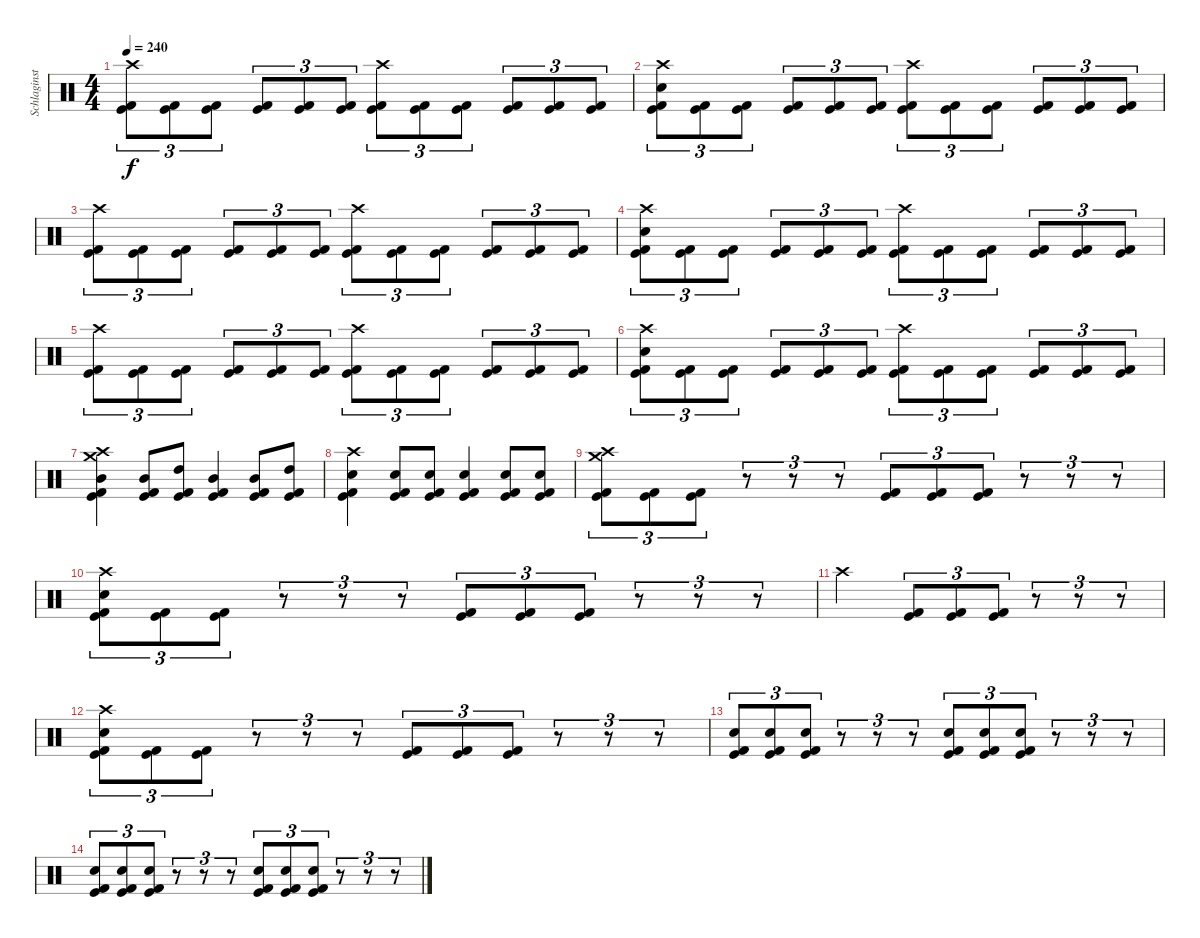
\track ("Schlaginstrumente - Auswahl" "Schlaginst") {instrument percussion}
\staff {score}
\articulation defaults
\ts (4 4)
\tempo 240
\clef neutral
\ks c
("Crash high (hit)" "Kick (hit)" "Kick (hit) 2").8{tu (3 2) dy f} ("Kick (hit)" "Kick (hit) 2").8{tu (3 2)} ("Kick (hit)" "Kick (hit) 2").8{tu (3 2)} ("Kick (hit)" "Kick (hit) 2").8{tu (3 2)} ("Kick (hit)" "Kick (hit) 2").8{tu (3 2)} ("Kick (hit)" "Kick (hit) 2").8{tu (3 2)} ("Crash high (hit)" "Kick (hit)" "Kick (hit) 2").8{tu (3 2)} ("Kick (hit)" "Kick (hit) 2").8{tu (3 2)} ("Kick (hit)" "Kick (hit) 2").8{tu (3 2)} ("Kick (hit)" "Kick (hit) 2").8{tu (3 2)} ("Kick (hit)" "Kick (hit) 2").8{tu (3 2)} ("Kick (hit)" "Kick (hit) 2").8{tu (3 2)} |
("Crash high (hit)" "Electric Snare (hit)" "Kick (hit)" "Kick (hit) 2").8{tu (3 2)} ("Kick (hit)" "Kick (hit) 2").8{tu (3 2)} ("Kick (hit)" "Kick (hit) 2").8{tu (3 2)} ("Kick (hit)" "Kick (hit) 2").8{tu (3 2)} ("Kick (hit)" "Kick (hit) 2").8{tu (3 2)} ("Kick (hit)" "Kick (hit) 2").8{tu (3 2)} ("Crash high (hit)" "Kick (hit)" "Kick (hit) 2").8{tu (3 2)} ("Kick (hit)" "Kick (hit) 2").8{tu (3 2)} ("Kick (hit)" "Kick (hit) 2").8{tu (3 2)} ("Kick (hit)" "Kick (hit) 2").8{tu (3 2)} ("Kick (hit)" "Kick (hit) 2").8{tu (3 2)} ("Kick (hit)" "Kick (hit) 2").8{tu (3 2)} |
("Crash high (hit)" "Kick (hit)" "Kick (hit) 2").8{tu (3 2)} ("Kick (hit)" "Kick (hit) 2").8{tu (3 2)} ("Kick (hit)" "Kick (hit) 2").8{tu (3 2)} ("Kick (hit)" "Kick (hit) 2").8{tu (3 2)} ("Kick (hit)" "Kick (hit) 2").8{tu (3 2)} ("Kick (hit)" "Kick (hit) 2").8{tu (3 2)} ("Crash high (hit)" "Kick (hit)" "Kick (hit) 2").8{tu (3 2)} ("Kick (hit)" "Kick (hit) 2").8{tu (3 2)} ("Kick (hit)" "Kick (hit) 2").8{tu (3 2)} ("Kick (hit)" "Kick (hit) 2").8{tu (3 2)} ("Kick (hit)" "Kick (hit) 2").8{tu (3 2)} ("Kick (hit)" "Kick (hit) 2").8{tu (3 2)} |
("Crash high (hit)" "Electric Snare (hit)" "Kick (hit)" "Kick (hit) 2").8{tu (3 2)} ("Kick (hit)" "Kick (hit) 2").8{tu (3 2)} ("Kick (hit)" "Kick (hit) 2").8{tu (3 2)} ("Kick (hit)" "Kick (hit) 2").8{tu (3 2)} ("Kick (hit)" "Kick (hit) 2").8{tu (3 2)} ("Kick (hit)" "Kick (hit) 2").8{tu (3 2)} ("Crash high (hit)" "Kick (hit)" "Kick (hit) 2").8{tu (3 2)} ("Kick (hit)" "Kick (hit) 2").8{tu (3 2)} ("Kick (hit)" "Kick (hit) 2").8{tu (3 2)} ("Kick (hit)" "Kick (hit) 2").8{tu (3 2)} ("Kick (hit)" "Kick (hit) 2").8{tu (3 2)} ("Kick (hit)" "Kick (hit) 2").8{tu (3 2)} |
("Crash high (hit)" "Kick (hit)" "Kick (hit) 2").8{tu (3 2)} ("Kick (hit)" "Kick (hit) 2").8{tu (3 2)} ("Kick (hit)" "Kick (hit) 2").8{tu (3 2)} ("Kick (hit)" "Kick (hit) 2").8{tu (3 2)} ("Kick (hit)" "Kick (hit) 2").8{tu (3 2)} ("Kick (hit)" "Kick (hit) 2").8{tu (3 2)} ("Crash high (hit)" "Kick (hit)" "Kick (hit) 2").8{tu (3 2)} ("Kick (hit)" "Kick (hit) 2").8{tu (3 2)} ("Kick (hit)" "Kick (hit) 2").8{tu (3 2)} ("Kick (hit)" "Kick (hit) 2").8{tu (3 2)} ("Kick (hit)" "Kick (hit) 2").8{tu (3 2)} ("Kick (hit)" "Kick (hit) 2").8{tu (3 2)} |
("Crash high (hit)" "Electric Snare (hit)" "Kick (hit)" "Kick (hit) 2").8{tu (3 2)} ("Kick (hit)" "Kick (hit) 2").8{tu (3 2)} ("Kick (hit)" "Kick (hit) 2").8{tu (3 2)} ("Kick (hit)" "Kick (hit) 2").8{tu (3 2)} ("Kick (hit)" "Kick (hit) 2").8{tu (3 2)} ("Kick (hit)" "Kick (hit) 2").8{tu (3 2)} ("Crash high (hit)" "Kick (hit)" "Kick (hit) 2").8{tu (3 2)} ("Kick (hit)" "Kick (hit) 2").8{tu (3 2)} ("Kick (hit)" "Kick (hit) 2").8{tu (3 2)} ("Kick (hit)" "Kick (hit) 2").8{tu (3 2)} ("Kick (hit)" "Kick (hit) 2").8{tu (3 2)} ("Kick (hit)" "Kick (hit) 2").8{tu (3 2)} |
("Crash medium (hit)" "Crash high (hit)" "Mid Tom (hit)" "Kick (hit)" "Kick (hit) 2").4 ("Mid Tom (hit)" "Kick (hit)" "Kick (hit) 2").8 ("High Tom (hit)" "Kick (hit)" "Kick (hit) 2").8 ("Mid Tom (hit)" "Kick (hit)" "Kick (hit) 2").4 ("Mid Tom (hit)" "Kick (hit)" "Kick (hit) 2").8 ("High Tom (hit)" "Kick (hit)" "Kick (hit) 2").8 |
("Crash high (hit)" "Electric Snare (hit)" "Kick (hit)" "Kick (hit) 2").4 ("Electric Snare (hit)" "Kick (hit)" "Kick (hit) 2").8 ("Electric Snare (hit)" "Kick (hit)" "Kick (hit) 2").8 ("Electric Snare (hit)" "Kick (hit)" "Kick (hit) 2").4 ("Electric Snare (hit)" "Kick (hit)" "Kick (hit) 2").8 ("Electric Snare (hit)" "Kick (hit)" "Kick (hit) 2").8 |
("Crash medium (hit)" "Crash high (hit)" "Kick (hit)" "Kick (hit) 2").8{tu (3 2)} ("Kick (hit)" "Kick (hit) 2").8{tu (3 2)} ("Kick (hit)" "Kick (hit) 2").8{tu (3 2)} r.8{tu (3 2)} r.8{tu (3 2)} r.8{tu (3 2)} ("Kick (hit)" "Kick (hit) 2").8{tu (3 2)} ("Kick (hit)" "Kick (hit) 2").8{tu (3 2)} ("Kick (hit)" "Kick (hit) 2").8{tu (3 2)} r.8{tu (3 2)} r.8{tu (3 2)} r.8{tu (3 2)} |
("Crash high (hit)" "Electric Snare (hit)" "Kick (hit)" "Kick (hit) 2").8{tu (3 2)} ("Kick (hit)" "Kick (hit) 2").8{tu (3 2)} ("Kick (hit)" "Kick (hit) 2").8{tu (3 2)} r.8{tu (3 2)} r.8{tu (3 2)} r.8{tu (3 2)} ("Kick (hit)" "Kick (hit) 2").8{tu (3 2)} ("Kick (hit)" "Kick (hit) 2").8{tu (3 2)} ("Kick (hit)" "Kick (hit) 2").8{tu (3 2)} r.8{tu (3 2)} r.8{tu (3 2)} r.8{tu (3 2)} |
"Crash high (hit)".2 ("Kick (hit)" "Kick (hit) 2").8{tu (3 2)} ("Kick (hit)" "Kick (hit) 2").8{tu (3 2)} ("Kick (hit)" "Kick (hit) 2").8{tu (3 2)} r.8{tu (3 2)} r.8{tu (3 2)} r.8{tu (3 2)} |
("Crash high (hit)" "Electric Snare (hit)" "Kick (hit)" "Kick (hit) 2").8{tu (3 2)} ("Kick (hit)" "Kick (hit) 2").8{tu (3 2)} ("Kick (hit)" "Kick (hit) 2").8{tu (3 2)} r.8{tu (3 2)} r.8{tu (3 2)} r.8{tu (3 2)} ("Kick (hit)" "Kick (hit) 2").8{tu (3 2)} ("Kick (hit)" "Kick (hit) 2").8{tu (3 2)} ("Kick (hit)" "Kick (hit) 2").8{tu (3 2)} r.8{tu (3 2)} r.8{tu (3 2)} r.8{tu (3 2)} |
("Electric Snare (hit)" "Kick (hit)" "Kick (hit) 2").8{tu (3 2)} ("Electric Snare (hit)" "Kick (hit)" "Kick (hit) 2").8{tu (3 2)} ("Electric Snare (hit)" "Kick (hit)" "Kick (hit) 2").8{tu (3 2)} r.8{tu (3 2)} r.8{tu (3 2)} r.8{tu (3 2)} ("Electric Snare (hit)" "Kick (hit)" "Kick (hit) 2").8{tu (3 2)} ("Electric Snare (hit)" "Kick (hit)" "Kick (hit) 2").8{tu (3 2)} ("Electric Snare (hit)" "Kick (hit)" "Kick (hit) 2").8{tu (3 2)} r.8{tu (3 2)} r.8{tu (3 2)} r.8{tu (3 2)} |
("Electric Snare (hit)" "Kick (hit)" "Kick (hit) 2").8{tu (3 2)} ("Electric Snare (hit)" "Kick (hit)" "Kick (hit) 2").8{tu (3 2)} ("Electric Snare (hit)" "Kick (hit)" "Kick (hit) 2").8{tu (3 2)} r.8{tu (3 2)} r.8{tu (3 2)} r.8{tu (3 2)} ("Electric Snare (hit)" "Kick (hit)" "Kick (hit) 2").8{tu (3 2)} ("Electric Snare (hit)" "Kick (hit)" "Kick (hit) 2").8{tu (3 2)} ("Electric Snare (hit)" "Kick (hit)" "Kick (hit) 2").8{tu (3 2)} r.8{tu (3 2)} r.8{tu (3 2)} r.8{tu (3 2)}
